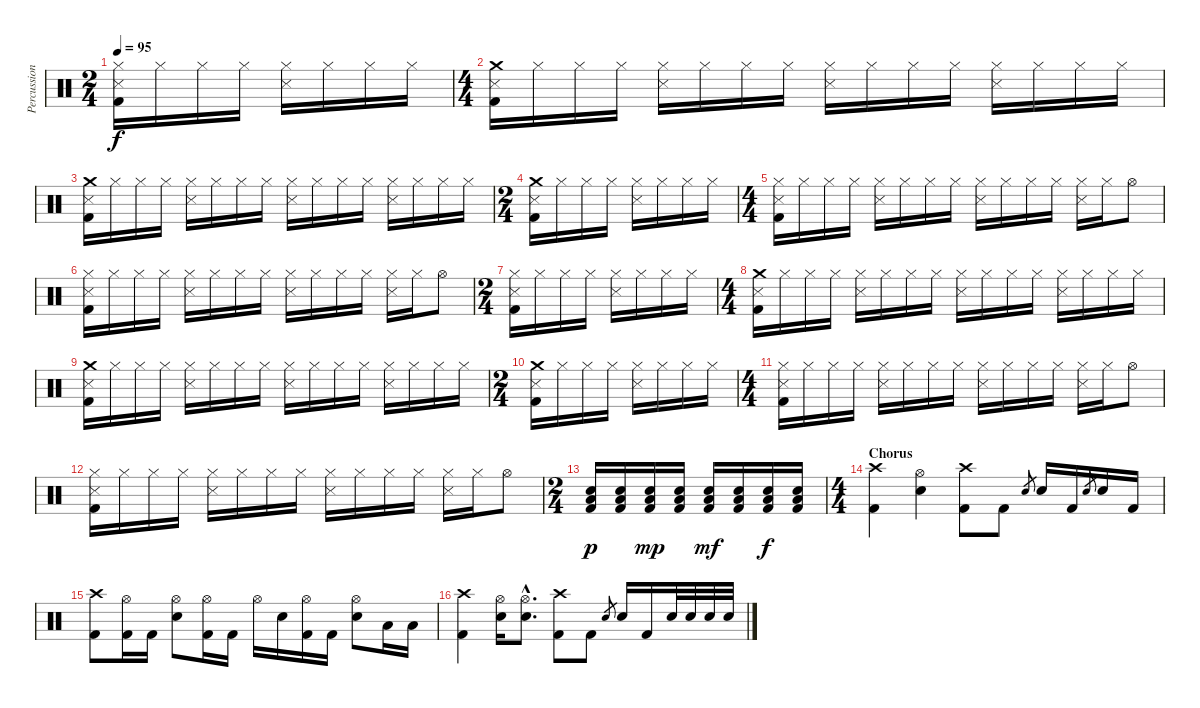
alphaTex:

\track ("Percussion" "Percussion") {instrument percussion}
\staff {score}
\articulation defaults
\ts (2 4)
\tempo 95
\clef neutral
\ks c
("Hi-Hat (closed)" "Snare (side stick) 3" "Kick (hit) 2").16{dy f} "Hi-Hat (closed)".16 "Hi-Hat (closed)".16 "Hi-Hat (closed)".16 ("Hi-Hat (closed)" "Snare (side stick) 3").16 "Hi-Hat (closed)".16 "Hi-Hat (closed)".16 "Hi-Hat (closed)".16 |
\ts (4 4)
("Crash medium (hit)" "Snare (side stick) 3" "Kick (hit) 2").16 "Hi-Hat (closed)".16 "Hi-Hat (closed)".16 "Hi-Hat (closed)".16 ("Hi-Hat (closed)" "Snare (side stick) 3").16 "Hi-Hat (closed)".16 "Hi-Hat (closed)".16 "Hi-Hat (closed)".16 ("Hi-Hat (closed)" "Snare (side stick) 3").16 "Hi-Hat (closed)".16 "Hi-Hat (closed)".16 "Hi-Hat (closed)".16 ("Hi-Hat (closed)" "Snare (side stick) 3").16 "Hi-Hat (closed)".16 "Hi-Hat (closed)".16 "Hi-Hat (closed)".16 |
("Crash medium (hit)" "Snare (side stick) 3" "Kick (hit) 2").16 "Hi-Hat (closed)".16 "Hi-Hat (closed)".16 "Hi-Hat (closed)".16 ("Hi-Hat (closed)" "Snare (side stick) 3").16 "Hi-Hat (closed)".16 "Hi-Hat (closed)".16 "Hi-Hat (closed)".16 ("Hi-Hat (closed)" "Snare (side stick) 3").16 "Hi-Hat (closed)".16 "Hi-Hat (closed)".16 "Hi-Hat (closed)".16 ("Hi-Hat (closed)" "Snare (side stick) 3").16 "Hi-Hat (closed)".16 "Hi-Hat (closed)".16 "Hi-Hat (closed)".16 |
\ts (2 4)
("Crash medium (hit)" "Snare (side stick) 3" "Kick (hit) 2").16 "Hi-Hat (closed)".16 "Hi-Hat (closed)".16 "Hi-Hat (closed)".16 ("Hi-Hat (closed)" "Snare (side stick) 3").16 "Hi-Hat (closed)".16 "Hi-Hat (closed)".16 "Hi-Hat (closed)".16 |
\ts (4 4)
("Hi-Hat (closed)" "Snare (side stick) 3" "Kick (hit) 2").16 "Hi-Hat (closed)".16 "Hi-Hat (closed)".16 "Hi-Hat (closed)".16 ("Hi-Hat (closed)" "Snare (side stick) 3").16 "Hi-Hat (closed)".16 "Hi-Hat (closed)".16 "Hi-Hat (closed)".16 ("Hi-Hat (closed)" "Snare (side stick) 3").16 "Hi-Hat (closed)".16 "Hi-Hat (closed)".16 "Hi-Hat (closed)".16 ("Hi-Hat (closed)" "Snare (side stick) 3").16 "Hi-Hat (closed)".16 "Hi-Hat (open)".8 |
("Hi-Hat (closed)" "Snare (side stick) 3" "Kick (hit) 2").16 "Hi-Hat (closed)".16 "Hi-Hat (closed)".16 "Hi-Hat (closed)".16 ("Hi-Hat (closed)" "Snare (side stick) 3").16 "Hi-Hat (closed)".16 "Hi-Hat (closed)".16 "Hi-Hat (closed)".16 ("Hi-Hat (closed)" "Snare (side stick) 3").16 "Hi-Hat (closed)".16 "Hi-Hat (closed)".16 "Hi-Hat (closed)".16 ("Hi-Hat (closed)" "Snare (side stick) 3").16 "Hi-Hat (closed)".16 "Hi-Hat (open)".8 |
\ts (2 4)
("Hi-Hat (closed)" "Snare (side stick) 3" "Kick (hit) 2").16 "Hi-Hat (closed)".16 "Hi-Hat (closed)".16 "Hi-Hat (closed)".16 ("Hi-Hat (closed)" "Snare (side stick) 3").16 "Hi-Hat (closed)".16 "Hi-Hat (closed)".16 "Hi-Hat (closed)".16 |
\ts (4 4)
("Crash medium (hit)" "Snare (side stick) 3" "Kick (hit) 2").16 "Hi-Hat (closed)".16 "Hi-Hat (closed)".16 "Hi-Hat (closed)".16 ("Hi-Hat (closed)" "Snare (side stick) 3").16 "Hi-Hat (closed)".16 "Hi-Hat (closed)".16 "Hi-Hat (closed)".16 ("Hi-Hat (closed)" "Snare (side stick) 3").16 "Hi-Hat (closed)".16 "Hi-Hat (closed)".16 "Hi-Hat (closed)".16 ("Hi-Hat (closed)" "Snare (side stick) 3").16 "Hi-Hat (closed)".16 "Hi-Hat (closed)".16 "Hi-Hat (closed)".16 |
("Crash medium (hit)" "Snare (side stick) 3" "Kick (hit) 2").16 "Hi-Hat (closed)".16 "Hi-Hat (closed)".16 "Hi-Hat (closed)".16 ("Hi-Hat (closed)" "Snare (side stick) 3").16 "Hi-Hat (closed)".16 "Hi-Hat (closed)".16 "Hi-Hat (closed)".16 ("Hi-Hat (closed)" "Snare (side stick) 3").16 "Hi-Hat (closed)".16 "Hi-Hat (closed)".16 "Hi-Hat (closed)".16 ("Hi-Hat (closed)" "Snare (side stick) 3").16 "Hi-Hat (closed)".16 "Hi-Hat (closed)".16 "Hi-Hat (closed)".16 |
\ts (2 4)
("Crash medium (hit)" "Snare (side stick) 3" "Kick (hit) 2").16 "Hi-Hat (closed)".16 "Hi-Hat (closed)".16 "Hi-Hat (closed)".16 ("Hi-Hat (closed)" "Snare (side stick) 3").16 "Hi-Hat (closed)".16 "Hi-Hat (closed)".16 "Hi-Hat (closed)".16 |
\ts (4 4)
("Hi-Hat (closed)" "Snare (side stick) 3" "Kick (hit) 2").16 "Hi-Hat (closed)".16 "Hi-Hat (closed)".16 "Hi-Hat (closed)".16 ("Hi-Hat (closed)" "Snare (side stick) 3").16 "Hi-Hat (closed)".16 "Hi-Hat (closed)".16 "Hi-Hat (closed)".16 ("Hi-Hat (closed)" "Snare (side stick) 3").16 "Hi-Hat (closed)".16 "Hi-Hat (closed)".16 "Hi-Hat (closed)".16 ("Hi-Hat (closed)" "Snare (side stick) 3").16 "Hi-Hat (closed)".16 "Hi-Hat (open)".8 |
("Hi-Hat (closed)" "Snare (side stick) 3" "Kick (hit) 2").16 "Hi-Hat (closed)".16 "Hi-Hat (closed)".16 "Hi-Hat (closed)".16 ("Hi-Hat (closed)" "Snare (side stick) 3").16 "Hi-Hat (closed)".16 "Hi-Hat (closed)".16 "Hi-Hat (closed)".16 ("Hi-Hat (closed)" "Snare (side stick) 3").16 "Hi-Hat (closed)".16 "Hi-Hat (closed)".16 "Hi-Hat (closed)".16 ("Hi-Hat (closed)" "Snare (side stick) 3").16 "Hi-Hat (closed)".16 "Hi-Hat (open)".8 |
\ts (2 4)
("Snare (hit) 2" "Low Floor Tom (hit)" "Kick (hit) 2").16{dy p} ("Snare (hit) 2" "Low Floor Tom (hit)" "Kick (hit) 2").16 ("Snare (hit) 2" "Low Floor Tom (hit)" "Kick (hit) 2").16{dy mp} ("Snare (hit) 2" "Low Floor Tom (hit)" "Kick (hit) 2").16 ("Snare (hit) 2" "Low Floor Tom (hit)" "Kick (hit) 2").16{dy mf} ("Snare (hit) 2" "Low Floor Tom (hit)" "Kick (hit) 2").16 ("Snare (hit) 2" "Low Floor Tom (hit)" "Kick (hit) 2").16{dy f} ("Snare (hit) 2" "Low Floor Tom (hit)" "Kick (hit) 2").16 |
\ts (4 4)
\section ("" "Chorus")
("Crash high (hit)" "Kick (hit) 2").4 ("Hi-Hat (open)" "Snare (hit) 2").4 ("Crash high (hit)" "Kick (hit) 2").8 "Kick (hit) 2".8 "Snare (hit) 2".8{gr} "Snare (hit) 2".16 "Kick (hit) 2".16 "Snare (hit) 2".8{gr} "Snare (hit) 2".16 "Kick (hit) 2".16 |
("Crash high (hit)" "Kick (hit) 2").8 ("Hi-Hat (open)" "Kick (hit) 2").16 "Kick (hit) 2".16 ("Hi-Hat (open)" "Snare (hit) 2").8 ("Hi-Hat (open)" "Kick (hit) 2").16 "Kick (hit) 2".16 "Hi-Hat (open)".16 "Snare (hit) 2".16 ("Hi-Hat (open)" "Kick (hit) 2").16 "Kick (hit) 2".16 ("Hi-Hat (open)" "Snare (hit) 2").8 "Low Floor Tom (hit)".16 "Low Floor Tom (hit)".16 |
("Crash high (hit)" "Kick (hit) 2").4 ("Hi-Hat (open)" "Snare (hit) 2").16 ("Hi-Hat (open)"{hac} "Snare (hit) 2"{hac}).8{d} ("Crash high (hit)" "Kick (hit) 2").8 "Kick (hit) 2".8 "Snare (hit) 2".8{gr} "Snare (hit) 2".16 "Kick (hit) 2".16 "Snare (hit) 2".32 "Snare (hit) 2".32 "Snare (hit) 2".32 "Snare (hit) 2".32
